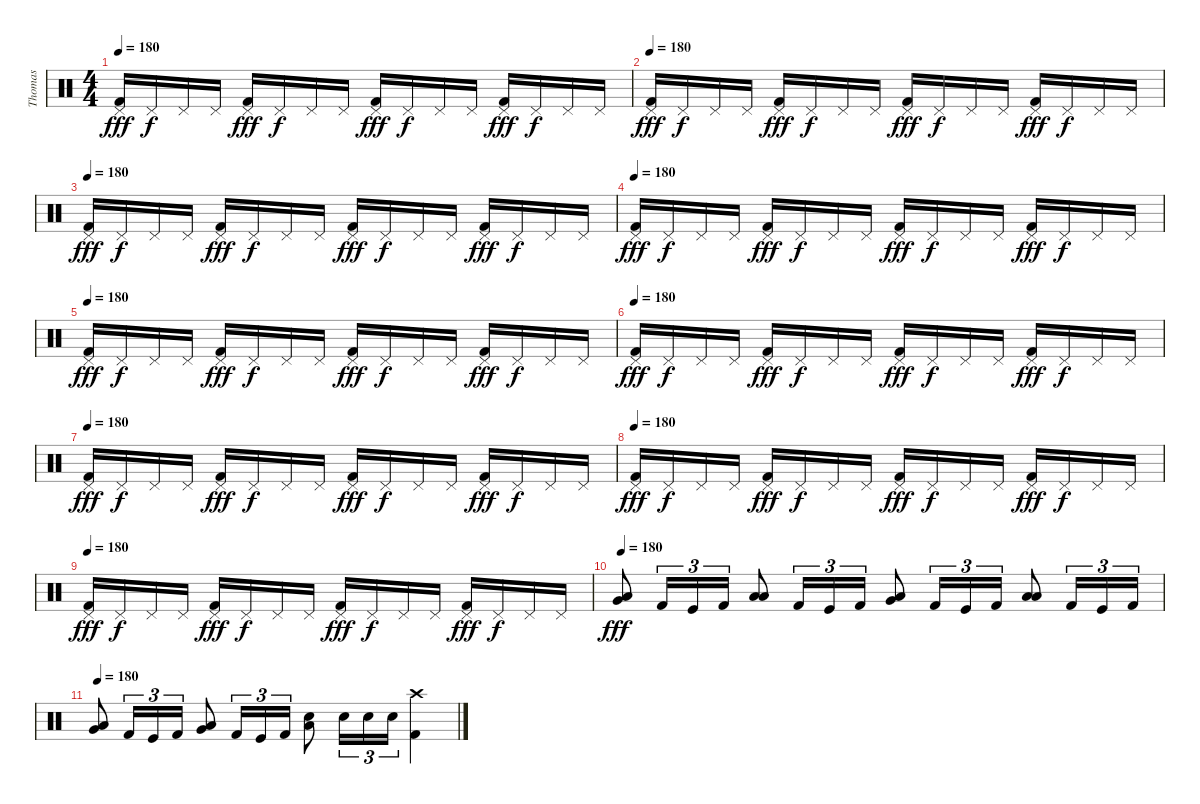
\track ("Thomas" "Thomas") {instrument percussion}
\staff {score}
\articulation defaults
\ts (4 4)
\tempo 180
\clef neutral
\ks c
("Pedal Hi-Hat (hit)" "Kick (hit) 2").16{dy fff} "Pedal Hi-Hat (hit)".16{dy f} "Pedal Hi-Hat (hit)".16 "Pedal Hi-Hat (hit)".16 ("Pedal Hi-Hat (hit)" "Kick (hit) 2").16{dy fff} "Pedal Hi-Hat (hit)".16{dy f} "Pedal Hi-Hat (hit)".16 "Pedal Hi-Hat (hit)".16 ("Pedal Hi-Hat (hit)" "Kick (hit) 2").16{dy fff} "Pedal Hi-Hat (hit)".16{dy f} "Pedal Hi-Hat (hit)".16 "Pedal Hi-Hat (hit)".16 ("Pedal Hi-Hat (hit)" "Kick (hit) 2").16{dy fff} "Pedal Hi-Hat (hit)".16{dy f} "Pedal Hi-Hat (hit)".16 "Pedal Hi-Hat (hit)".16 |
\tempo 180
("Pedal Hi-Hat (hit)" "Kick (hit) 2").16{dy fff} "Pedal Hi-Hat (hit)".16{dy f} "Pedal Hi-Hat (hit)".16 "Pedal Hi-Hat (hit)".16 ("Pedal Hi-Hat (hit)" "Kick (hit) 2").16{dy fff} "Pedal Hi-Hat (hit)".16{dy f} "Pedal Hi-Hat (hit)".16 "Pedal Hi-Hat (hit)".16 ("Pedal Hi-Hat (hit)" "Kick (hit) 2").16{dy fff} "Pedal Hi-Hat (hit)".16{dy f} "Pedal Hi-Hat (hit)".16 "Pedal Hi-Hat (hit)".16 ("Pedal Hi-Hat (hit)" "Kick (hit) 2").16{dy fff} "Pedal Hi-Hat (hit)".16{dy f} "Pedal Hi-Hat (hit)".16 "Pedal Hi-Hat (hit)".16 |
\tempo 180
("Pedal Hi-Hat (hit)" "Kick (hit) 2").16{dy fff} "Pedal Hi-Hat (hit)".16{dy f} "Pedal Hi-Hat (hit)".16 "Pedal Hi-Hat (hit)".16 ("Pedal Hi-Hat (hit)" "Kick (hit) 2").16{dy fff} "Pedal Hi-Hat (hit)".16{dy f} "Pedal Hi-Hat (hit)".16 "Pedal Hi-Hat (hit)".16 ("Pedal Hi-Hat (hit)" "Kick (hit) 2").16{dy fff} "Pedal Hi-Hat (hit)".16{dy f} "Pedal Hi-Hat (hit)".16 "Pedal Hi-Hat (hit)".16 ("Pedal Hi-Hat (hit)" "Kick (hit) 2").16{dy fff} "Pedal Hi-Hat (hit)".16{dy f} "Pedal Hi-Hat (hit)".16 "Pedal Hi-Hat (hit)".16 |
\tempo 180
("Pedal Hi-Hat (hit)" "Kick (hit) 2").16{dy fff} "Pedal Hi-Hat (hit)".16{dy f} "Pedal Hi-Hat (hit)".16 "Pedal Hi-Hat (hit)".16 ("Pedal Hi-Hat (hit)" "Kick (hit) 2").16{dy fff} "Pedal Hi-Hat (hit)".16{dy f} "Pedal Hi-Hat (hit)".16 "Pedal Hi-Hat (hit)".16 ("Pedal Hi-Hat (hit)" "Kick (hit) 2").16{dy fff} "Pedal Hi-Hat (hit)".16{dy f} "Pedal Hi-Hat (hit)".16 "Pedal Hi-Hat (hit)".16 ("Pedal Hi-Hat (hit)" "Kick (hit) 2").16{dy fff} "Pedal Hi-Hat (hit)".16{dy f} "Pedal Hi-Hat (hit)".16 "Pedal Hi-Hat (hit)".16 |
\tempo 180
("Pedal Hi-Hat (hit)" "Kick (hit) 2").16{dy fff} "Pedal Hi-Hat (hit)".16{dy f} "Pedal Hi-Hat (hit)".16 "Pedal Hi-Hat (hit)".16 ("Pedal Hi-Hat (hit)" "Kick (hit) 2").16{dy fff} "Pedal Hi-Hat (hit)".16{dy f} "Pedal Hi-Hat (hit)".16 "Pedal Hi-Hat (hit)".16 ("Pedal Hi-Hat (hit)" "Kick (hit) 2").16{dy fff} "Pedal Hi-Hat (hit)".16{dy f} "Pedal Hi-Hat (hit)".16 "Pedal Hi-Hat (hit)".16 ("Pedal Hi-Hat (hit)" "Kick (hit) 2").16{dy fff} "Pedal Hi-Hat (hit)".16{dy f} "Pedal Hi-Hat (hit)".16 "Pedal Hi-Hat (hit)".16 |
\tempo 180
("Pedal Hi-Hat (hit)" "Kick (hit) 2").16{dy fff} "Pedal Hi-Hat (hit)".16{dy f} "Pedal Hi-Hat (hit)".16 "Pedal Hi-Hat (hit)".16 ("Pedal Hi-Hat (hit)" "Kick (hit) 2").16{dy fff} "Pedal Hi-Hat (hit)".16{dy f} "Pedal Hi-Hat (hit)".16 "Pedal Hi-Hat (hit)".16 ("Pedal Hi-Hat (hit)" "Kick (hit) 2").16{dy fff} "Pedal Hi-Hat (hit)".16{dy f} "Pedal Hi-Hat (hit)".16 "Pedal Hi-Hat (hit)".16 ("Pedal Hi-Hat (hit)" "Kick (hit) 2").16{dy fff} "Pedal Hi-Hat (hit)".16{dy f} "Pedal Hi-Hat (hit)".16 "Pedal Hi-Hat (hit)".16 |
\tempo 180
("Pedal Hi-Hat (hit)" "Kick (hit) 2").16{dy fff} "Pedal Hi-Hat (hit)".16{dy f} "Pedal Hi-Hat (hit)".16 "Pedal Hi-Hat (hit)".16 ("Pedal Hi-Hat (hit)" "Kick (hit) 2").16{dy fff} "Pedal Hi-Hat (hit)".16{dy f} "Pedal Hi-Hat (hit)".16 "Pedal Hi-Hat (hit)".16 ("Pedal Hi-Hat (hit)" "Kick (hit) 2").16{dy fff} "Pedal Hi-Hat (hit)".16{dy f} "Pedal Hi-Hat (hit)".16 "Pedal Hi-Hat (hit)".16 ("Pedal Hi-Hat (hit)" "Kick (hit) 2").16{dy fff} "Pedal Hi-Hat (hit)".16{dy f} "Pedal Hi-Hat (hit)".16 "Pedal Hi-Hat (hit)".16 |
\tempo 180
("Pedal Hi-Hat (hit)" "Kick (hit) 2").16{dy fff} "Pedal Hi-Hat (hit)".16{dy f} "Pedal Hi-Hat (hit)".16 "Pedal Hi-Hat (hit)".16 ("Pedal Hi-Hat (hit)" "Kick (hit) 2").16{dy fff} "Pedal Hi-Hat (hit)".16{dy f} "Pedal Hi-Hat (hit)".16 "Pedal Hi-Hat (hit)".16 ("Pedal Hi-Hat (hit)" "Kick (hit) 2").16{dy fff} "Pedal Hi-Hat (hit)".16{dy f} "Pedal Hi-Hat (hit)".16 "Pedal Hi-Hat (hit)".16 ("Pedal Hi-Hat (hit)" "Kick (hit) 2").16{dy fff} "Pedal Hi-Hat (hit)".16{dy f} "Pedal Hi-Hat (hit)".16 "Pedal Hi-Hat (hit)".16 |
\tempo 180
("Pedal Hi-Hat (hit)" "Kick (hit) 2").16{dy fff} "Pedal Hi-Hat (hit)".16{dy f} "Pedal Hi-Hat (hit)".16 "Pedal Hi-Hat (hit)".16 ("Pedal Hi-Hat (hit)" "Kick (hit) 2").16{dy fff} "Pedal Hi-Hat (hit)".16{dy f} "Pedal Hi-Hat (hit)".16 "Pedal Hi-Hat (hit)".16 ("Pedal Hi-Hat (hit)" "Kick (hit) 2").16{dy fff} "Pedal Hi-Hat (hit)".16{dy f} "Pedal Hi-Hat (hit)".16 "Pedal Hi-Hat (hit)".16 ("Pedal Hi-Hat (hit)" "Kick (hit) 2").16{dy fff} "Pedal Hi-Hat (hit)".16{dy f} "Pedal Hi-Hat (hit)".16 "Pedal Hi-Hat (hit)".16 |
\tempo 180
("Low Tom (hit)" "Very Low Tom (hit)").8{dy fff} "Kick (hit) 2".16{tu (3 2)} "Kick (hit)".16{tu (3 2)} "Kick (hit) 2".16{tu (3 2)} ("Low Tom (hit)" "Low Floor Tom (hit)").8 "Kick (hit) 2".16{tu (3 2)} "Kick (hit)".16{tu (3 2)} "Kick (hit) 2".16{tu (3 2)} ("Low Tom (hit)" "Very Low Tom (hit)").8 "Kick (hit) 2".16{tu (3 2)} "Kick (hit)".16{tu (3 2)} "Kick (hit) 2".16{tu (3 2)} ("Low Tom (hit)" "Low Floor Tom (hit)").8 "Kick (hit) 2".16{tu (3 2)} "Kick (hit)".16{tu (3 2)} "Kick (hit) 2".16{tu (3 2)} |
\tempo 180
("Very Low Tom (hit)" "Low Floor Tom (hit)").8 "Kick (hit) 2".16{tu (3 2)} "Kick (hit)".16{tu (3 2)} "Kick (hit) 2".16{tu (3 2)} ("Very Low Tom (hit)" "Low Floor Tom (hit)").8 "Kick (hit) 2".16{tu (3 2)} "Kick (hit)".16{tu (3 2)} "Kick (hit) 2".16{tu (3 2)} ("Low Tom (hit)" "Snare (hit) 2").8 "Snare (hit) 2".16{tu (3 2)} "Snare (hit) 2".16{tu (3 2)} "Snare (hit) 2".16{tu (3 2)} ("Crash high (hit)" "Kick (hit) 2").4
